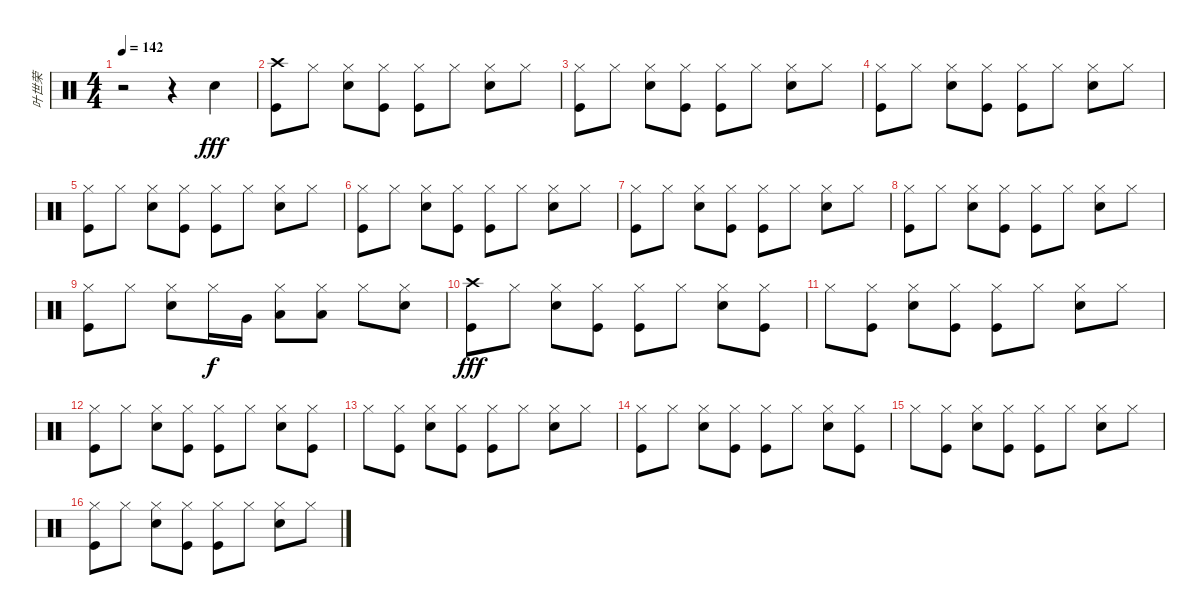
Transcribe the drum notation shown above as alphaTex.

\track ("叶世荣" "叶世荣") {instrument percussion}
\staff {score}
\articulation defaults
\ts (4 4)
\tempo 142
\clef neutral
\ks c
r.2{dy fff} r.4 "Snare (hit) 2".4 |
("Crash high (hit)" "Kick (hit)").8 "Hi-Hat (closed)".8 ("Hi-Hat (closed)" "Snare (hit) 2").8 ("Hi-Hat (closed)" "Kick (hit)").8 ("Hi-Hat (closed)" "Kick (hit)").8 "Hi-Hat (closed)".8 ("Hi-Hat (closed)" "Snare (hit) 2").8 "Hi-Hat (closed)".8 |
("Hi-Hat (closed)" "Kick (hit)").8 "Hi-Hat (closed)".8 ("Hi-Hat (closed)" "Snare (hit) 2").8 ("Hi-Hat (closed)" "Kick (hit)").8 ("Hi-Hat (closed)" "Kick (hit)").8 "Hi-Hat (closed)".8 ("Hi-Hat (closed)" "Snare (hit) 2").8 "Hi-Hat (closed)".8 |
("Hi-Hat (closed)" "Kick (hit)").8 "Hi-Hat (closed)".8 ("Hi-Hat (closed)" "Snare (hit) 2").8 ("Hi-Hat (closed)" "Kick (hit)").8 ("Hi-Hat (closed)" "Kick (hit)").8 "Hi-Hat (closed)".8 ("Hi-Hat (closed)" "Snare (hit) 2").8 "Hi-Hat (closed)".8 |
("Hi-Hat (closed)" "Kick (hit)").8 "Hi-Hat (closed)".8 ("Hi-Hat (closed)" "Snare (hit) 2").8 ("Hi-Hat (closed)" "Kick (hit)").8 ("Hi-Hat (closed)" "Kick (hit)").8 "Hi-Hat (closed)".8 ("Hi-Hat (closed)" "Snare (hit) 2").8 "Hi-Hat (closed)".8 |
("Hi-Hat (closed)" "Kick (hit)").8 "Hi-Hat (closed)".8 ("Hi-Hat (closed)" "Snare (hit) 2").8 ("Hi-Hat (closed)" "Kick (hit)").8 ("Hi-Hat (closed)" "Kick (hit)").8 "Hi-Hat (closed)".8 ("Hi-Hat (closed)" "Snare (hit) 2").8 "Hi-Hat (closed)".8 |
("Hi-Hat (closed)" "Kick (hit)").8 "Hi-Hat (closed)".8 ("Hi-Hat (closed)" "Snare (hit) 2").8 ("Hi-Hat (closed)" "Kick (hit)").8 ("Hi-Hat (closed)" "Kick (hit)").8 "Hi-Hat (closed)".8 ("Hi-Hat (closed)" "Snare (hit) 2").8 "Hi-Hat (closed)".8 |
("Hi-Hat (closed)" "Kick (hit)").8 "Hi-Hat (closed)".8 ("Hi-Hat (closed)" "Snare (hit) 2").8 ("Hi-Hat (closed)" "Kick (hit)").8 ("Hi-Hat (closed)" "Kick (hit)").8 "Hi-Hat (closed)".8 ("Hi-Hat (closed)" "Snare (hit) 2").8 "Hi-Hat (closed)".8 |
("Hi-Hat (closed)" "Kick (hit)").8 "Hi-Hat (closed)".8 ("Hi-Hat (closed)" "Snare (hit) 2").8 "Hi-Hat (closed)".16{dy f} "Very Low Tom (hit)".16 ("Hi-Hat (closed)" "Low Tom (hit)").8 ("Hi-Hat (closed)" "Low Tom (hit)").8 "Hi-Hat (closed)".8 ("Hi-Hat (closed)" "Snare (hit) 2").8 |
("Crash high (hit)" "Kick (hit)").8{dy fff} "Hi-Hat (closed)".8 ("Hi-Hat (closed)" "Snare (hit) 2").8 ("Hi-Hat (closed)" "Kick (hit)").8 ("Hi-Hat (closed)" "Kick (hit)").8 "Hi-Hat (closed)".8 ("Hi-Hat (closed)" "Snare (hit) 2").8 ("Hi-Hat (closed)" "Kick (hit)").8 |
"Hi-Hat (closed)".8 ("Hi-Hat (closed)" "Kick (hit)").8 ("Hi-Hat (closed)" "Snare (hit) 2").8 ("Hi-Hat (closed)" "Kick (hit)").8 ("Hi-Hat (closed)" "Kick (hit)").8 "Hi-Hat (closed)".8 ("Hi-Hat (closed)" "Snare (hit) 2").8 "Hi-Hat (closed)".8 |
("Hi-Hat (closed)" "Kick (hit)").8 "Hi-Hat (closed)".8 ("Hi-Hat (closed)" "Snare (hit) 2").8 ("Hi-Hat (closed)" "Kick (hit)").8 ("Hi-Hat (closed)" "Kick (hit)").8 "Hi-Hat (closed)".8 ("Hi-Hat (closed)" "Snare (hit) 2").8 ("Hi-Hat (closed)" "Kick (hit)").8 |
"Hi-Hat (closed)".8 ("Hi-Hat (closed)" "Kick (hit)").8 ("Hi-Hat (closed)" "Snare (hit) 2").8 ("Hi-Hat (closed)" "Kick (hit)").8 ("Hi-Hat (closed)" "Kick (hit)").8 "Hi-Hat (closed)".8 ("Hi-Hat (closed)" "Snare (hit) 2").8 "Hi-Hat (closed)".8 |
("Hi-Hat (closed)" "Kick (hit)").8 "Hi-Hat (closed)".8 ("Hi-Hat (closed)" "Snare (hit) 2").8 ("Hi-Hat (closed)" "Kick (hit)").8 ("Hi-Hat (closed)" "Kick (hit)").8 "Hi-Hat (closed)".8 ("Hi-Hat (closed)" "Snare (hit) 2").8 ("Hi-Hat (closed)" "Kick (hit)").8 |
"Hi-Hat (closed)".8 ("Hi-Hat (closed)" "Kick (hit)").8 ("Hi-Hat (closed)" "Snare (hit) 2").8 ("Hi-Hat (closed)" "Kick (hit)").8 ("Hi-Hat (closed)" "Kick (hit)").8 "Hi-Hat (closed)".8 ("Hi-Hat (closed)" "Snare (hit) 2").8 "Hi-Hat (closed)".8 |
("Hi-Hat (closed)" "Kick (hit)").8 "Hi-Hat (closed)".8 ("Hi-Hat (closed)" "Snare (hit) 2").8 ("Hi-Hat (closed)" "Kick (hit)").8 ("Hi-Hat (closed)" "Kick (hit)").8 "Hi-Hat (closed)".8 ("Hi-Hat (closed)" "Snare (hit) 2").8 "Hi-Hat (closed)".8
